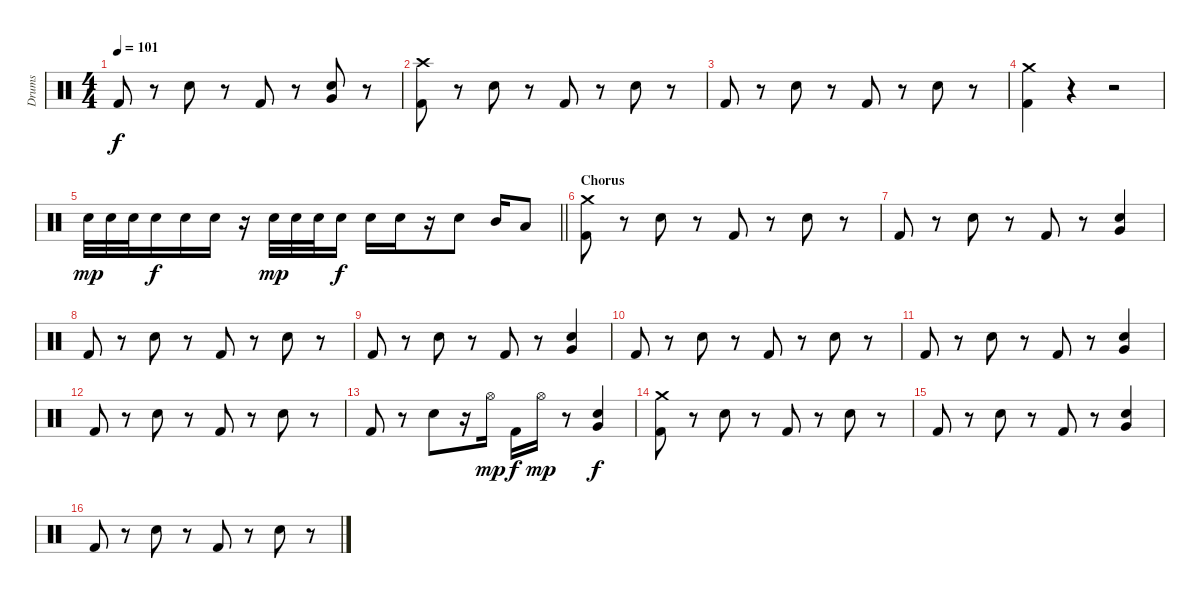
\track ("Drums" "Drums") {instrument percussion}
\staff {score}
\articulation defaults
\ts (4 4)
\tempo 101
\clef neutral
\ks c "Kick (hit) 2".8{dy f}
r.8 "Electric Snare (hit)".8 r.8 "Kick (hit) 2".8 r.8 ("Electric Snare (hit)" "Very Low Tom (hit)").8 r.8 |
("Crash high (hit)" "Kick (hit) 2").8 r.8 "Electric Snare (hit)".8 r.8 "Kick (hit) 2".8 r.8 "Electric Snare (hit)".8 r.8 |
"Kick (hit) 2".8 r.8 "Electric Snare (hit)".8 r.8 "Kick (hit) 2".8 r.8 "Electric Snare (hit)".8 r.8 |
("Crash medium (hit)" "Kick (hit) 2").4 r.4 r.2 |
\barLineRight lightlight "Electric Snare (hit)".32{dy mp} "Electric Snare (hit)".32 "Electric Snare (hit)".32 "Electric Snare (hit)".16{dy f} "Electric Snare (hit)".16 "Electric Snare (hit)".16
r.16 "Electric Snare (hit)".32{dy mp} "Electric Snare (hit)".32 "Electric Snare (hit)".32 "Electric Snare (hit)".16{dy f} "Electric Snare (hit)".16 "Electric Snare (hit)".16 r.16 "Electric Snare (hit)".8 "Mid Tom (hit)".16 "Low Tom (hit)".8 |
\section ("" "Chorus")
("Crash medium (hit)" "Kick (hit) 2").8 r.8 "Electric Snare (hit)".8 r.8 "Kick (hit) 2".8 r.8 "Electric Snare (hit)".8 r.8 |
"Kick (hit) 2".8 r.8 "Electric Snare (hit)".8 r.8 "Kick (hit) 2".8 r.8 ("Electric Snare (hit)" "Very Low Tom (hit)").4 |
"Kick (hit) 2".8 r.8 "Electric Snare (hit)".8 r.8 "Kick (hit) 2".8 r.8 "Electric Snare (hit)".8 r.8 |
"Kick (hit) 2".8 r.8 "Electric Snare (hit)".8 r.8 "Kick (hit) 2".8 r.8 ("Electric Snare (hit)" "Very Low Tom (hit)").4 |
"Kick (hit) 2".8 r.8 "Electric Snare (hit)".8 r.8 "Kick (hit) 2".8 r.8 "Electric Snare (hit)".8 r.8 |
"Kick (hit) 2".8 r.8 "Electric Snare (hit)".8 r.8 "Kick (hit) 2".8 r.8 ("Electric Snare (hit)" "Very Low Tom (hit)").4 |
"Kick (hit) 2".8 r.8 "Electric Snare (hit)".8 r.8 "Kick (hit) 2".8 r.8 "Electric Snare (hit)".8 r.8 |
"Kick (hit) 2".8 r.8 "Electric Snare (hit)".8 r.16 "Hi-Hat (open)".16{dy mp} "Kick (hit) 2".16{dy f} "Hi-Hat (open)".16{dy mp} r.8 ("Electric Snare (hit)" "Very Low Tom (hit)").4{dy f} |
("Crash medium (hit)" "Kick (hit) 2").8 r.8 "Electric Snare (hit)".8 r.8 "Kick (hit) 2".8 r.8 "Electric Snare (hit)".8 r.8 |
"Kick (hit) 2".8 r.8 "Electric Snare (hit)".8 r.8 "Kick (hit) 2".8 r.8 ("Electric Snare (hit)" "Very Low Tom (hit)").4 |
"Kick (hit) 2".8 r.8 "Electric Snare (hit)".8 r.8 "Kick (hit) 2".8 r.8 "Electric Snare (hit)".8 r.8
